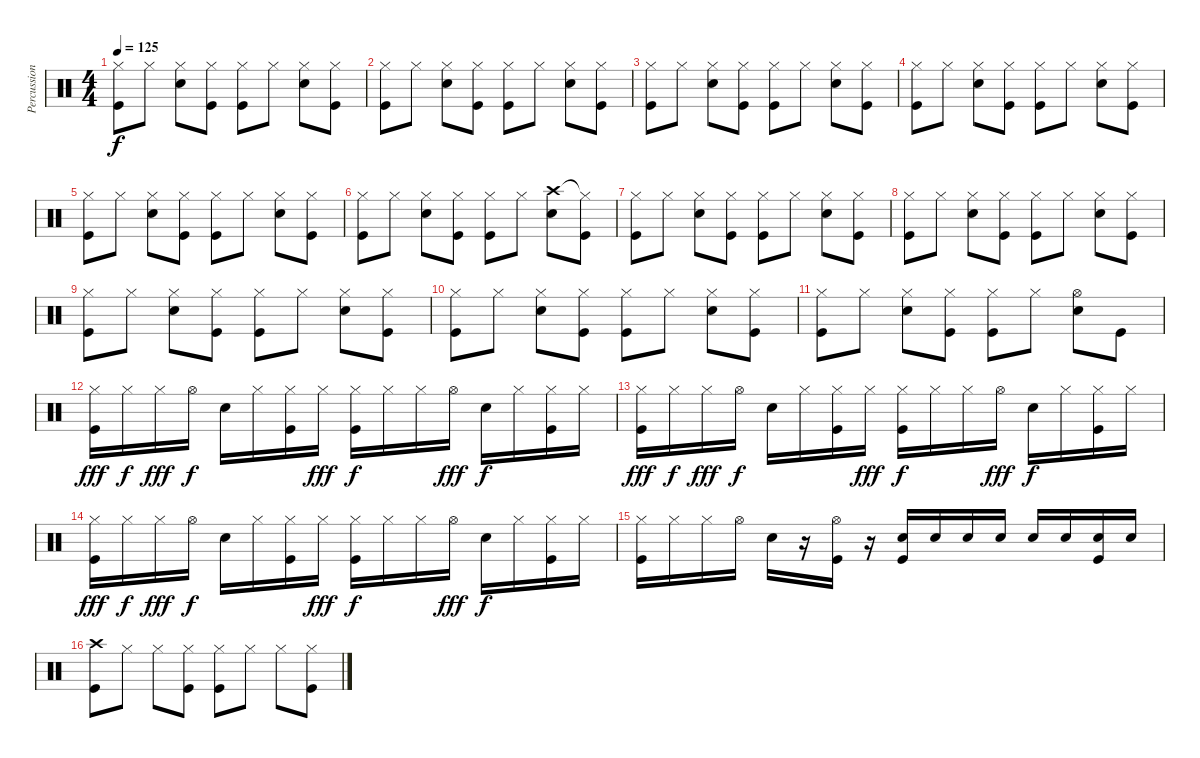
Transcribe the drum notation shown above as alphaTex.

\track ("Percussion" "Percussion") {instrument percussion}
\staff {score}
\articulation defaults
\ts (4 4)
\tempo 125
\clef neutral
\ks c
("Hi-Hat (closed)" "Kick (hit)").8{dy f} "Hi-Hat (closed)".8 ("Hi-Hat (closed)" "Electric Snare (hit)").8 ("Hi-Hat (closed)" "Kick (hit)").8 ("Hi-Hat (closed)" "Kick (hit)").8 "Hi-Hat (closed)".8 ("Hi-Hat (closed)" "Electric Snare (hit)").8 ("Hi-Hat (closed)" "Kick (hit)").8 |
("Hi-Hat (closed)" "Kick (hit)").8 "Hi-Hat (closed)".8 ("Hi-Hat (closed)" "Electric Snare (hit)").8 ("Hi-Hat (closed)" "Kick (hit)").8 ("Hi-Hat (closed)" "Kick (hit)").8 "Hi-Hat (closed)".8 ("Hi-Hat (closed)" "Electric Snare (hit)").8 ("Hi-Hat (closed)" "Kick (hit)").8 |
("Hi-Hat (closed)" "Kick (hit)").8 "Hi-Hat (closed)".8 ("Hi-Hat (closed)" "Electric Snare (hit)").8 ("Hi-Hat (closed)" "Kick (hit)").8 ("Hi-Hat (closed)" "Kick (hit)").8 "Hi-Hat (closed)".8 ("Hi-Hat (closed)" "Electric Snare (hit)").8 ("Hi-Hat (closed)" "Kick (hit)").8 |
("Hi-Hat (closed)" "Kick (hit)").8 "Hi-Hat (closed)".8 ("Hi-Hat (closed)" "Electric Snare (hit)").8 ("Hi-Hat (closed)" "Kick (hit)").8 ("Hi-Hat (closed)" "Kick (hit)").8 "Hi-Hat (closed)".8 ("Hi-Hat (closed)" "Electric Snare (hit)").8 ("Hi-Hat (closed)" "Kick (hit)").8 |
("Hi-Hat (closed)" "Kick (hit)").8 "Hi-Hat (closed)".8 ("Hi-Hat (closed)" "Electric Snare (hit)").8 ("Hi-Hat (closed)" "Kick (hit)").8 ("Hi-Hat (closed)" "Kick (hit)").8 "Hi-Hat (closed)".8 ("Hi-Hat (closed)" "Electric Snare (hit)").8 ("Hi-Hat (closed)" "Kick (hit)").8 |
("Hi-Hat (closed)" "Kick (hit)").8 "Hi-Hat (closed)".8 ("Hi-Hat (closed)" "Electric Snare (hit)").8 ("Hi-Hat (closed)" "Kick (hit)").8 ("Hi-Hat (closed)" "Kick (hit)").8 "Hi-Hat (closed)".8 ("Crash high (hit)" "Electric Snare (hit)").8 ("Hi-Hat (closed)"{t} "Kick (hit)").8 |
("Hi-Hat (closed)" "Kick (hit)").8 "Hi-Hat (closed)".8 ("Hi-Hat (closed)" "Electric Snare (hit)").8 ("Hi-Hat (closed)" "Kick (hit)").8 ("Hi-Hat (closed)" "Kick (hit)").8 "Hi-Hat (closed)".8 ("Hi-Hat (closed)" "Electric Snare (hit)").8 ("Hi-Hat (closed)" "Kick (hit)").8 |
("Hi-Hat (closed)" "Kick (hit)").8 "Hi-Hat (closed)".8 ("Hi-Hat (closed)" "Electric Snare (hit)").8 ("Hi-Hat (closed)" "Kick (hit)").8 ("Hi-Hat (closed)" "Kick (hit)").8 "Hi-Hat (closed)".8 ("Hi-Hat (closed)" "Electric Snare (hit)").8 ("Hi-Hat (closed)" "Kick (hit)").8 |
("Hi-Hat (closed)" "Kick (hit)").8 "Hi-Hat (closed)".8 ("Hi-Hat (closed)" "Electric Snare (hit)").8 ("Hi-Hat (closed)" "Kick (hit)").8 ("Hi-Hat (closed)" "Kick (hit)").8 "Hi-Hat (closed)".8 ("Hi-Hat (closed)" "Electric Snare (hit)").8 ("Hi-Hat (closed)" "Kick (hit)").8 |
("Hi-Hat (closed)" "Kick (hit)").8 "Hi-Hat (closed)".8 ("Hi-Hat (closed)" "Electric Snare (hit)").8 ("Hi-Hat (closed)" "Kick (hit)").8 ("Hi-Hat (closed)" "Kick (hit)").8 "Hi-Hat (closed)".8 ("Hi-Hat (closed)" "Electric Snare (hit)").8 ("Hi-Hat (closed)" "Kick (hit)").8 |
("Hi-Hat (closed)" "Kick (hit)").8 "Hi-Hat (closed)".8 ("Hi-Hat (closed)" "Electric Snare (hit)").8 ("Hi-Hat (closed)" "Kick (hit)").8 ("Hi-Hat (closed)" "Kick (hit)").8 "Hi-Hat (closed)".8 ("Hi-Hat (open)" "Electric Snare (hit)").8 "Kick (hit)".8 |
("Hi-Hat (closed)" "Kick (hit)").16{dy fff} "Hi-Hat (closed)".16{dy f} "Hi-Hat (closed)".16{dy fff} "Hi-Hat (open)".16{dy f} "Electric Snare (hit)".16 "Hi-Hat (closed)".16 ("Hi-Hat (closed)" "Kick (hit)").16 "Hi-Hat (closed)".16{dy fff} ("Hi-Hat (closed)" "Kick (hit)").16{dy f} "Hi-Hat (closed)".16 "Hi-Hat (closed)".16 "Hi-Hat (open)".16{dy fff} "Electric Snare (hit)".16{dy f} "Hi-Hat (closed)".16 ("Hi-Hat (closed)" "Kick (hit)").16 "Hi-Hat (closed)".16 |
("Hi-Hat (closed)" "Kick (hit)").16{dy fff} "Hi-Hat (closed)".16{dy f} "Hi-Hat (closed)".16{dy fff} "Hi-Hat (open)".16{dy f} "Electric Snare (hit)".16 "Hi-Hat (closed)".16 ("Hi-Hat (closed)" "Kick (hit)").16 "Hi-Hat (closed)".16{dy fff} ("Hi-Hat (closed)" "Kick (hit)").16{dy f} "Hi-Hat (closed)".16 "Hi-Hat (closed)".16 "Hi-Hat (open)".16{dy fff} "Electric Snare (hit)".16{dy f} "Hi-Hat (closed)".16 ("Hi-Hat (closed)" "Kick (hit)").16 "Hi-Hat (closed)".16 |
("Hi-Hat (closed)" "Kick (hit)").16{dy fff} "Hi-Hat (closed)".16{dy f} "Hi-Hat (closed)".16{dy fff} "Hi-Hat (open)".16{dy f} "Electric Snare (hit)".16 "Hi-Hat (closed)".16 ("Hi-Hat (closed)" "Kick (hit)").16 "Hi-Hat (closed)".16{dy fff} ("Hi-Hat (closed)" "Kick (hit)").16{dy f} "Hi-Hat (closed)".16 "Hi-Hat (closed)".16 "Hi-Hat (open)".16{dy fff} "Electric Snare (hit)".16{dy f} "Hi-Hat (closed)".16 ("Hi-Hat (closed)" "Kick (hit)").16 "Hi-Hat (closed)".16 |
("Hi-Hat (closed)" "Kick (hit)").16 "Hi-Hat (closed)".16 "Hi-Hat (closed)".16 "Hi-Hat (open)".16 "Electric Snare (hit)".16 r.16 ("Hi-Hat (open)" "Kick (hit)").16 r.16 ("Electric Snare (hit)" "Kick (hit)").16 "Electric Snare (hit)".16 "Electric Snare (hit)".16 "Electric Snare (hit)".16 "Electric Snare (hit)".16 "Electric Snare (hit)".16 ("Electric Snare (hit)" "Kick (hit)").16 "Electric Snare (hit)".16 |
("Crash high (hit)" "Kick (hit)").8 "Hi-Hat (closed)".8 "Hi-Hat (closed)".8 ("Hi-Hat (closed)" "Kick (hit)").8 ("Hi-Hat (closed)" "Kick (hit)").8 "Hi-Hat (closed)".8 "Hi-Hat (closed)".8 ("Hi-Hat (closed)" "Kick (hit)").8
